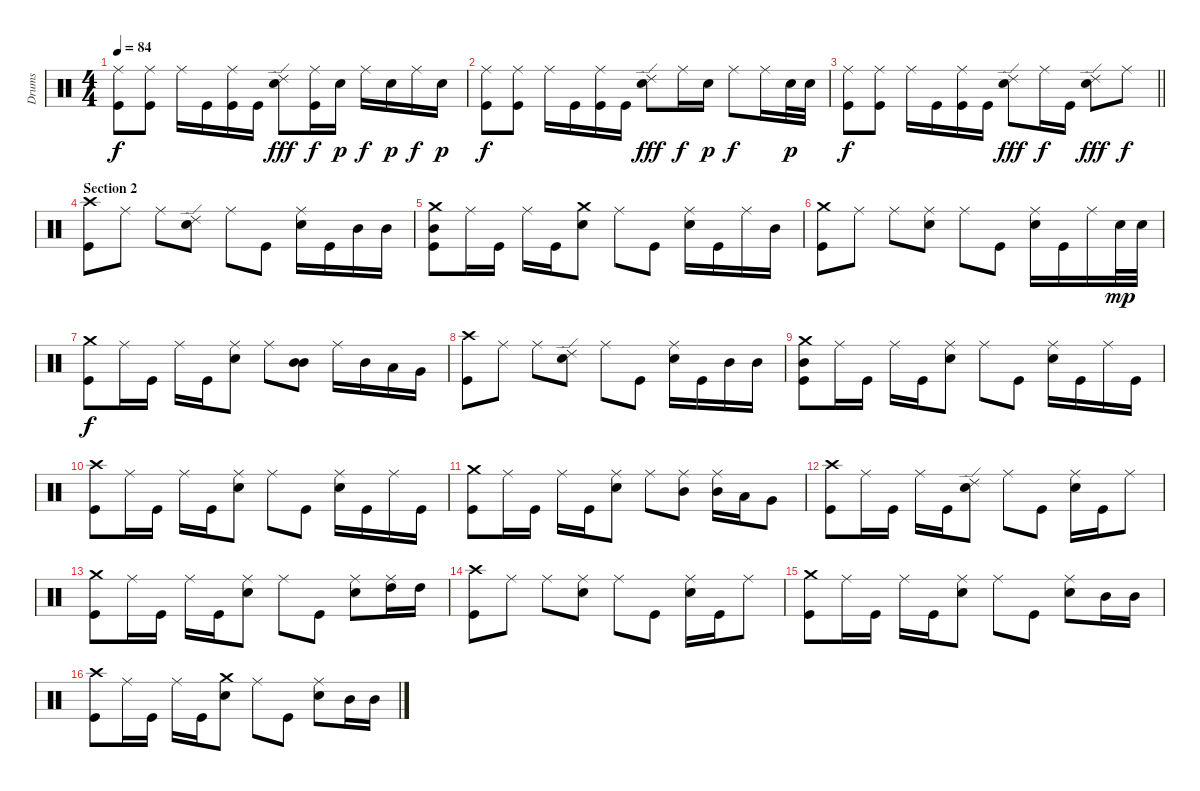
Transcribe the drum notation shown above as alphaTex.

\track ("Drums" "Drums") {instrument percussion}
\staff {score}
\articulation defaults
\ts (4 4)
\tempo 84
\clef neutral
\ks c
("Ride (middle)" "Kick (hit)").8{dy f} ("Ride (middle)" "Kick (hit)").8 "Ride (middle)".16 "Kick (hit)".16 ("Ride (middle)" "Kick (hit)").16 "Kick (hit)".16 ("Ride (edge) 2" "Electric Snare (hit)").8{dy fff} ("Ride (middle)" "Kick (hit)").16{dy f} "Electric Snare (hit)".16{dy p} "Ride (middle)".16{dy f} "Electric Snare (hit)".16{dy p} "Ride (middle)".16{dy f} "Electric Snare (hit)".16{dy p} |
("Ride (middle)" "Kick (hit)").8{dy f} ("Ride (middle)" "Kick (hit)").8 "Ride (middle)".16 "Kick (hit)".16 ("Ride (middle)" "Kick (hit)").16 "Kick (hit)".16 ("Ride (edge) 2" "Electric Snare (hit)").8{dy fff} "Ride (middle)".16{dy f} "Electric Snare (hit)".16{dy p} "Ride (middle)".8{dy f} "Ride (middle)".16 "Electric Snare (hit)".32{dy p} "Electric Snare (hit)".32 |
\barLineRight lightlight
("Ride (middle)" "Kick (hit)").8{dy f} ("Ride (middle)" "Kick (hit)").8 "Ride (middle)".16 "Kick (hit)".16 ("Ride (middle)" "Kick (hit)").16 "Kick (hit)".16 ("Ride (edge) 2" "Electric Snare (hit)").8{dy fff} "Ride (middle)".16{dy f} "Kick (hit)".16 ("Ride (edge) 2" "Electric Snare (hit)").8{dy fff} "Ride (middle)".8{dy f} |
\section ("" "Section 2")
("Crash high (hit)" "Kick (hit)").8 "Ride (middle)".8 "Ride (middle)".8 ("Ride (edge) 2" "Electric Snare (hit)").8 "Ride (middle)".8 "Kick (hit)".8 ("Ride (middle)" "Electric Snare (hit)").16 "Kick (hit)".16 "Mid Tom (hit)".16 "Mid Tom (hit)".16 |
("Crash medium (hit)" "Mid Tom (hit)" "Kick (hit)").8 "Ride (middle)".16 "Kick (hit)".16 "Ride (middle)".16 "Kick (hit)".16 ("Crash medium (hit)" "Electric Snare (hit)").8 "Ride (middle)".8 "Kick (hit)".8 ("Ride (middle)" "Electric Snare (hit)").16 "Kick (hit)".16 "Ride (middle)".16 "Mid Tom (hit)".16 |
("Crash medium (hit)" "Kick (hit)").8 "Ride (middle)".8 "Ride (middle)".8 ("Ride (middle)" "Electric Snare (hit)").8 "Ride (middle)".8 "Kick (hit)".8 ("Ride (middle)" "Electric Snare (hit)").16 "Kick (hit)".16 "Ride (middle)".16 "Electric Snare (hit)".32{dy mp} "Electric Snare (hit)".32 |
("Crash medium (hit)" "Kick (hit)").8{dy f} "Ride (middle)".16 "Kick (hit)".16 "Ride (middle)".16 "Kick (hit)".16 ("Ride (middle)" "Electric Snare (hit)").8 "Ride (middle)".8 ("Mid Tom (hit)" "Mid Tom (hit)").8 "Ride (middle)".16 "Mid Tom (hit)".16 "Low Tom (hit)".16 "Very Low Tom (hit)".16 |
("Crash high (hit)" "Kick (hit)").8 "Ride (middle)".8 "Ride (middle)".8 ("Ride (edge) 2" "Electric Snare (hit)").8 "Ride (middle)".8 "Kick (hit)".8 ("Ride (middle)" "Electric Snare (hit)").16 "Kick (hit)".16 "Mid Tom (hit)".16 "Mid Tom (hit)".16 |
("Crash medium (hit)" "Mid Tom (hit)" "Kick (hit)").8 "Ride (middle)".16 "Kick (hit)".16 "Ride (middle)".16 "Kick (hit)".16 ("Ride (middle)" "Electric Snare (hit)").8 "Ride (middle)".8 "Kick (hit)".8 ("Ride (middle)" "Electric Snare (hit)").16 "Kick (hit)".16 "Ride (middle)".16 "Kick (hit)".16 |
("Crash high (hit)" "Kick (hit)").8 "Ride (middle)".16 "Kick (hit)".16 "Ride (middle)".16 "Kick (hit)".16 ("Ride (middle)" "Electric Snare (hit)").8 "Ride (middle)".8 "Kick (hit)".8 ("Ride (middle)" "Electric Snare (hit)").16 "Kick (hit)".16 "Ride (middle)".16 "Kick (hit)".16 |
("Crash medium (hit)" "Kick (hit)").8 "Ride (middle)".16 "Kick (hit)".16 "Ride (middle)".16 "Kick (hit)".16 ("Ride (middle)" "Electric Snare (hit)").8 "Ride (middle)".8 ("Ride (middle)" "Mid Tom (hit)").8 ("Ride (middle)" "Mid Tom (hit)").16 "Low Tom (hit)".16 "Very Low Tom (hit)".8 |
("Crash high (hit)" "Kick (hit)").8 "Ride (middle)".16 "Kick (hit)".16 "Ride (middle)".16 "Kick (hit)".16 ("Ride (edge) 2" "Electric Snare (hit)").8 "Ride (middle)".8 "Kick (hit)".8 ("Ride (middle)" "Electric Snare (hit)").16 "Kick (hit)".16 "Ride (middle)".8 |
("Crash medium (hit)" "Kick (hit)").8 "Ride (middle)".16 "Kick (hit)".16 "Ride (middle)".16 "Kick (hit)".16 ("Ride (middle)" "Electric Snare (hit)").8 "Ride (middle)".8 "Kick (hit)".8 ("Ride (middle)" "Electric Snare (hit)").8 ("Ride (middle)" "High Tom (hit)").16 "High Tom (hit)".16 |
("Crash high (hit)" "Kick (hit)").8 "Ride (middle)".8 "Ride (middle)".8 ("Ride (middle)" "Electric Snare (hit)").8 "Ride (middle)".8 "Kick (hit)".8 ("Ride (middle)" "Electric Snare (hit)").16 "Kick (hit)".16 "Ride (middle)".8 |
("Crash medium (hit)" "Kick (hit)").8 "Ride (middle)".16 "Kick (hit)".16 "Ride (middle)".16 "Kick (hit)".16 ("Ride (middle)" "Electric Snare (hit)").8 "Ride (middle)".8 "Kick (hit)".8 ("Ride (middle)" "Electric Snare (hit)").8 "Mid Tom (hit)".16 "Mid Tom (hit)".16 |
("Crash high (hit)" "Kick (hit)").8 "Ride (middle)".16 "Kick (hit)".16 "Ride (middle)".16 "Kick (hit)".16 ("Crash medium (hit)" "Electric Snare (hit)").8 "Ride (middle)".8 "Kick (hit)".8 ("Ride (middle)" "Electric Snare (hit)").8 "Mid Tom (hit)".16 "Mid Tom (hit)".16
